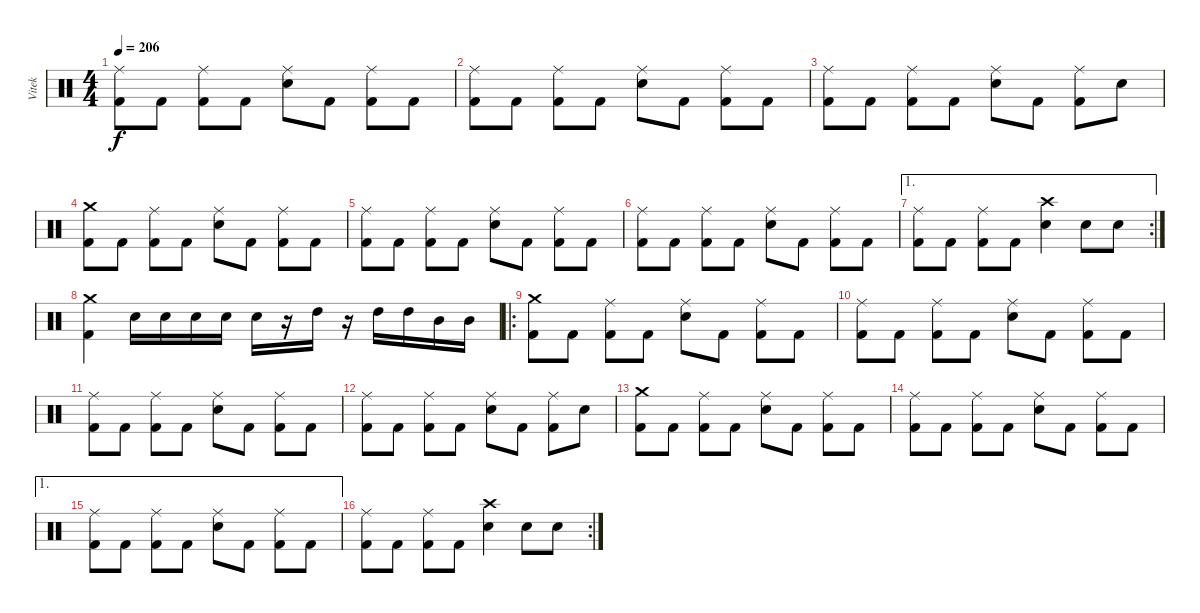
\track ("Vitek" "Vitek") {instrument percussion}
\staff {score}
\articulation defaults
\ts (4 4)
\tempo 206
\clef neutral
\ks c
("Ride (middle)" "Kick (hit) 2").8{dy f} "Kick (hit) 2".8 ("Ride (middle)" "Kick (hit) 2").8 "Kick (hit) 2".8 ("Ride (middle)" "Electric Snare (hit)").8 "Kick (hit) 2".8 ("Ride (middle)" "Kick (hit) 2").8 "Kick (hit) 2".8 |
("Ride (middle)" "Kick (hit) 2").8 "Kick (hit) 2".8 ("Ride (middle)" "Kick (hit) 2").8 "Kick (hit) 2".8 ("Ride (middle)" "Electric Snare (hit)").8 "Kick (hit) 2".8 ("Ride (middle)" "Kick (hit) 2").8 "Kick (hit) 2".8 |
("Ride (middle)" "Kick (hit) 2").8 "Kick (hit) 2".8 ("Ride (middle)" "Kick (hit) 2").8 "Kick (hit) 2".8 ("Ride (middle)" "Electric Snare (hit)").8 "Kick (hit) 2".8 ("Ride (middle)" "Kick (hit) 2").8 "Electric Snare (hit)".8 |
("Crash medium (hit)" "Kick (hit) 2").8 "Kick (hit) 2".8 ("Ride (middle)" "Kick (hit) 2").8 "Kick (hit) 2".8 ("Ride (middle)" "Electric Snare (hit)").8 "Kick (hit) 2".8 ("Ride (middle)" "Kick (hit) 2").8 "Kick (hit) 2".8 |
("Ride (middle)" "Kick (hit) 2").8 "Kick (hit) 2".8 ("Ride (middle)" "Kick (hit) 2").8 "Kick (hit) 2".8 ("Ride (middle)" "Electric Snare (hit)").8 "Kick (hit) 2".8 ("Ride (middle)" "Kick (hit) 2").8 "Kick (hit) 2".8 |
("Ride (middle)" "Kick (hit) 2").8 "Kick (hit) 2".8 ("Ride (middle)" "Kick (hit) 2").8 "Kick (hit) 2".8 ("Ride (middle)" "Electric Snare (hit)").8 "Kick (hit) 2".8 ("Ride (middle)" "Kick (hit) 2").8 "Kick (hit) 2".8 |
\ae 1
\rc 2
("Ride (middle)" "Kick (hit) 2").8 "Kick (hit) 2".8 ("Ride (middle)" "Kick (hit) 2").8 "Kick (hit) 2".8 ("Crash high (hit)" "Electric Snare (hit)").4 "Electric Snare (hit)".8 "Electric Snare (hit)".8 |
("Crash medium (hit)" "Kick (hit) 2").4 "Electric Snare (hit)".16 "Electric Snare (hit)".16 "Electric Snare (hit)".16 "Electric Snare (hit)".16 "Electric Snare (hit)".16 r.16 "High Tom (hit)".16 r.16 "High Tom (hit)".16 "High Tom (hit)".16 "Mid Tom (hit)".16 "Mid Tom (hit)".16 |
\ro
("Crash medium (hit)" "Kick (hit) 2").8 "Kick (hit) 2".8 ("Ride (middle)" "Kick (hit) 2").8 "Kick (hit) 2".8 ("Ride (middle)" "Electric Snare (hit)").8 "Kick (hit) 2".8 ("Ride (middle)" "Kick (hit) 2").8 "Kick (hit) 2".8 |
("Ride (middle)" "Kick (hit) 2").8 "Kick (hit) 2".8 ("Ride (middle)" "Kick (hit) 2").8 "Kick (hit) 2".8 ("Ride (middle)" "Electric Snare (hit)").8 "Kick (hit) 2".8 ("Ride (middle)" "Kick (hit) 2").8 "Kick (hit) 2".8 |
("Ride (middle)" "Kick (hit) 2").8 "Kick (hit) 2".8 ("Ride (middle)" "Kick (hit) 2").8 "Kick (hit) 2".8 ("Ride (middle)" "Electric Snare (hit)").8 "Kick (hit) 2".8 ("Ride (middle)" "Kick (hit) 2").8 "Kick (hit) 2".8 |
("Ride (middle)" "Kick (hit) 2").8 "Kick (hit) 2".8 ("Ride (middle)" "Kick (hit) 2").8 "Kick (hit) 2".8 ("Ride (middle)" "Electric Snare (hit)").8 "Kick (hit) 2".8 ("Ride (middle)" "Kick (hit) 2").8 "Electric Snare (hit)".8 |
("Crash medium (hit)" "Kick (hit) 2").8 "Kick (hit) 2".8 ("Ride (middle)" "Kick (hit) 2").8 "Kick (hit) 2".8 ("Ride (middle)" "Electric Snare (hit)").8 "Kick (hit) 2".8 ("Ride (middle)" "Kick (hit) 2").8 "Kick (hit) 2".8 |
("Ride (middle)" "Kick (hit) 2").8 "Kick (hit) 2".8 ("Ride (middle)" "Kick (hit) 2").8 "Kick (hit) 2".8 ("Ride (middle)" "Electric Snare (hit)").8 "Kick (hit) 2".8 ("Ride (middle)" "Kick (hit) 2").8 "Kick (hit) 2".8 |
\ae 1
("Ride (middle)" "Kick (hit) 2").8 "Kick (hit) 2".8 ("Ride (middle)" "Kick (hit) 2").8 "Kick (hit) 2".8 ("Ride (middle)" "Electric Snare (hit)").8 "Kick (hit) 2".8 ("Ride (middle)" "Kick (hit) 2").8 "Kick (hit) 2".8 |
\rc 2
("Ride (middle)" "Kick (hit) 2").8 "Kick (hit) 2".8 ("Ride (middle)" "Kick (hit) 2").8 "Kick (hit) 2".8 ("Crash high (hit)" "Electric Snare (hit)").4 "Electric Snare (hit)".8 "Electric Snare (hit)".8
